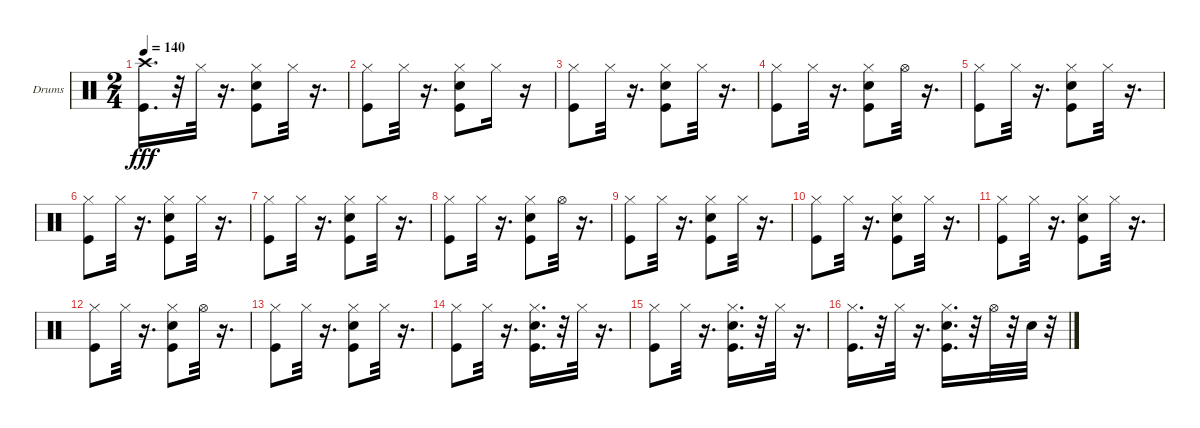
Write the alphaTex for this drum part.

\bracketExtendMode groupsimilarinstruments
\firstSystemTrackNameOrientation horizontal
\otherSystemsTrackNameOrientation horizontal
\track ("Ударные" "Drums") {instrument percussion}
\staff {score}
\articulation defaults
\ts (2 4)
\tempo 140
\clef neutral
\ks c
("Kick (hit)" "Crash high (hit)").16{d dy fff} r.32 "Hi-Hat (closed)".32 r.16{d} ("Snare (hit) 2" "Hi-Hat (closed)" "Kick (hit)").8 "Hi-Hat (closed)".32 r.16{d} |
("Kick (hit)" "Hi-Hat (closed)").8 "Hi-Hat (closed)".32 r.16{d} ("Snare (hit) 2" "Kick (hit)" "Hi-Hat (closed)").8 "Hi-Hat (closed)".16 r.16 |
("Kick (hit)" "Hi-Hat (closed)").8 "Hi-Hat (closed)".32 r.16{d} ("Snare (hit) 2" "Kick (hit)" "Hi-Hat (closed)").8 "Hi-Hat (closed)".32 r.16{d} |
("Kick (hit)" "Hi-Hat (closed)").8 "Hi-Hat (closed)".32 r.16{d} ("Kick (hit)" "Snare (hit) 2" "Hi-Hat (closed)").8 "Hi-Hat (open)".32 r.16{d} |
("Kick (hit)" "Hi-Hat (closed)").8 "Hi-Hat (closed)".32 r.16{d} ("Snare (hit) 2" "Kick (hit)" "Hi-Hat (closed)").8 "Hi-Hat (closed)".32 r.16{d} |
("Kick (hit)" "Hi-Hat (closed)").8 "Hi-Hat (closed)".32 r.16{d} ("Snare (hit) 2" "Kick (hit)" "Hi-Hat (closed)").8 "Hi-Hat (closed)".32 r.16{d} |
("Kick (hit)" "Hi-Hat (closed)").8 "Hi-Hat (closed)".32 r.16{d} ("Snare (hit) 2" "Kick (hit)" "Hi-Hat (closed)").8 "Hi-Hat (closed)".32 r.16{d} |
("Kick (hit)" "Hi-Hat (closed)").8 "Hi-Hat (closed)".32 r.16{d} ("Snare (hit) 2" "Kick (hit)" "Hi-Hat (closed)").8 "Hi-Hat (open)".32 r.16{d} |
("Kick (hit)" "Hi-Hat (closed)").8 "Hi-Hat (closed)".32 r.16{d} ("Snare (hit) 2" "Kick (hit)" "Hi-Hat (closed)").8 "Hi-Hat (closed)".32 r.16{d} |
("Kick (hit)" "Hi-Hat (closed)").8 "Hi-Hat (closed)".32 r.16{d} ("Snare (hit) 2" "Kick (hit)" "Hi-Hat (closed)").8 "Hi-Hat (closed)".32 r.16{d} |
("Kick (hit)" "Hi-Hat (closed)").8 "Hi-Hat (closed)".32 r.16{d} ("Snare (hit) 2" "Kick (hit)" "Hi-Hat (closed)").8 "Hi-Hat (closed)".32 r.16{d} |
("Kick (hit)" "Hi-Hat (closed)").8 "Hi-Hat (closed)".32 r.16{d} ("Snare (hit) 2" "Kick (hit)" "Hi-Hat (closed)").8 "Hi-Hat (open)".32 r.16{d} |
("Kick (hit)" "Hi-Hat (closed)").8 "Hi-Hat (closed)".32 r.16{d} ("Hi-Hat (closed)" "Snare (hit) 2" "Kick (hit)").8 "Hi-Hat (closed)".32 r.16{d} |
("Kick (hit)" "Hi-Hat (closed)").8 "Hi-Hat (closed)".32 r.16{d} ("Kick (hit)" "Hi-Hat (closed)" "Snare (hit) 2").16{d} r.32 "Hi-Hat (closed)".32 r.16{d} |
("Kick (hit)" "Hi-Hat (closed)").8 "Hi-Hat (closed)".32 r.16{d} ("Kick (hit)" "Hi-Hat (closed)" "Snare (hit) 2").16{d} r.32 "Hi-Hat (closed)".32 r.16{d} |
("Kick (hit)" "Hi-Hat (closed)").16{d} r.32 "Hi-Hat (closed)".32 r.16{d} ("Hi-Hat (closed)" "Snare (hit) 2" "Kick (hit)").16{d} r.32 "Hi-Hat (open)".32 r.32 "Snare (hit) 2".32 r.32
